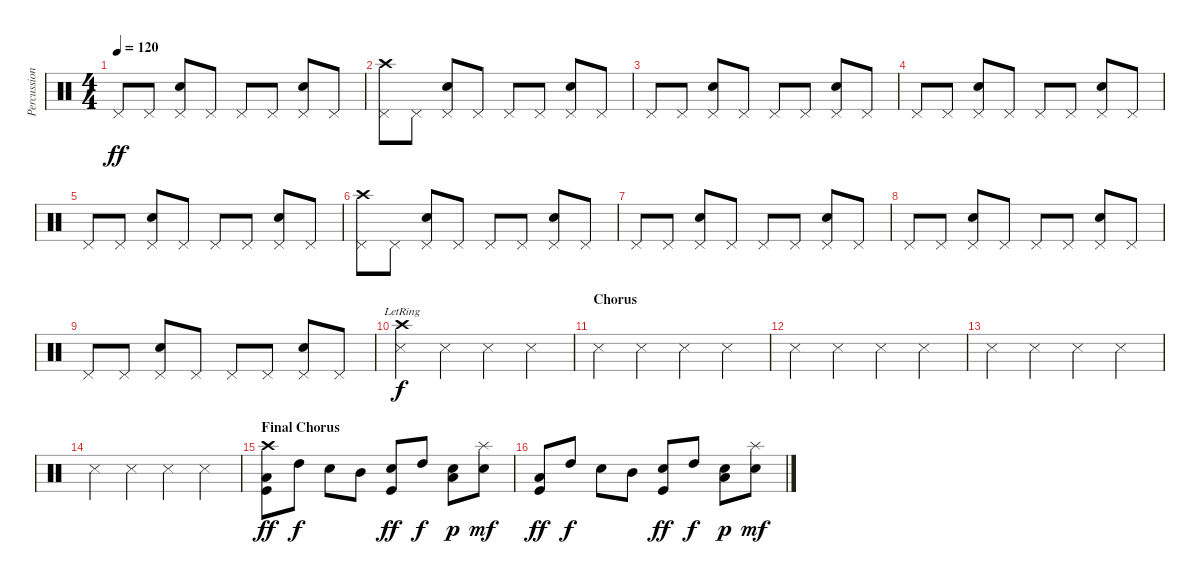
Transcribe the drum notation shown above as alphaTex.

\track ("Percussion" "Percussion") {instrument percussion}
\staff {score}
\articulation defaults
\ts (4 4)
\tempo 120
\clef neutral
\ks c "Pedal Hi-Hat (hit)".8{dy ff} "Pedal Hi-Hat (hit)".8
("Pedal Hi-Hat (hit)" "Electric Snare (hit)").8 "Pedal Hi-Hat (hit)".8 "Pedal Hi-Hat (hit)".8 "Pedal Hi-Hat (hit)".8 ("Pedal Hi-Hat (hit)" "Electric Snare (hit)").8 "Pedal Hi-Hat (hit)".8 |
("Pedal Hi-Hat (hit)" "Crash high (hit)").8 "Pedal Hi-Hat (hit)".8 ("Pedal Hi-Hat (hit)" "Electric Snare (hit)").8 "Pedal Hi-Hat (hit)".8 "Pedal Hi-Hat (hit)".8 "Pedal Hi-Hat (hit)".8 ("Pedal Hi-Hat (hit)" "Electric Snare (hit)").8 "Pedal Hi-Hat (hit)".8 |
"Pedal Hi-Hat (hit)".8 "Pedal Hi-Hat (hit)".8 ("Pedal Hi-Hat (hit)" "Electric Snare (hit)").8 "Pedal Hi-Hat (hit)".8 "Pedal Hi-Hat (hit)".8 "Pedal Hi-Hat (hit)".8 ("Pedal Hi-Hat (hit)" "Electric Snare (hit)").8 "Pedal Hi-Hat (hit)".8 |
"Pedal Hi-Hat (hit)".8 "Pedal Hi-Hat (hit)".8 ("Pedal Hi-Hat (hit)" "Electric Snare (hit)").8 "Pedal Hi-Hat (hit)".8 "Pedal Hi-Hat (hit)".8 "Pedal Hi-Hat (hit)".8 ("Pedal Hi-Hat (hit)" "Electric Snare (hit)").8 "Pedal Hi-Hat (hit)".8 |
"Pedal Hi-Hat (hit)".8 "Pedal Hi-Hat (hit)".8 ("Pedal Hi-Hat (hit)" "Electric Snare (hit)").8 "Pedal Hi-Hat (hit)".8 "Pedal Hi-Hat (hit)".8 "Pedal Hi-Hat (hit)".8 ("Pedal Hi-Hat (hit)" "Electric Snare (hit)").8 "Pedal Hi-Hat (hit)".8 |
("Pedal Hi-Hat (hit)" "Crash high (hit)").8 "Pedal Hi-Hat (hit)".8 ("Pedal Hi-Hat (hit)" "Electric Snare (hit)").8 "Pedal Hi-Hat (hit)".8 "Pedal Hi-Hat (hit)".8 "Pedal Hi-Hat (hit)".8 ("Pedal Hi-Hat (hit)" "Electric Snare (hit)").8 "Pedal Hi-Hat (hit)".8 |
"Pedal Hi-Hat (hit)".8 "Pedal Hi-Hat (hit)".8 ("Pedal Hi-Hat (hit)" "Electric Snare (hit)").8 "Pedal Hi-Hat (hit)".8 "Pedal Hi-Hat (hit)".8 "Pedal Hi-Hat (hit)".8 ("Pedal Hi-Hat (hit)" "Electric Snare (hit)").8 "Pedal Hi-Hat (hit)".8 |
"Pedal Hi-Hat (hit)".8 "Pedal Hi-Hat (hit)".8 ("Pedal Hi-Hat (hit)" "Electric Snare (hit)").8 "Pedal Hi-Hat (hit)".8 "Pedal Hi-Hat (hit)".8 "Pedal Hi-Hat (hit)".8 ("Pedal Hi-Hat (hit)" "Electric Snare (hit)").8 "Pedal Hi-Hat (hit)".8 |
"Pedal Hi-Hat (hit)".8 "Pedal Hi-Hat (hit)".8 ("Pedal Hi-Hat (hit)" "Electric Snare (hit)").8 "Pedal Hi-Hat (hit)".8 "Pedal Hi-Hat (hit)".8 "Pedal Hi-Hat (hit)".8 ("Pedal Hi-Hat (hit)" "Electric Snare (hit)").8 "Pedal Hi-Hat (hit)".8 |
("Crash high (hit)"{lr} "Snare (side stick) 3").4{dy f volume 10} "Snare (side stick) 3".4 "Snare (side stick) 3".4 "Snare (side stick) 3".4 |
\section ("" "Chorus")
"Snare (side stick) 3".4 "Snare (side stick) 3".4 "Snare (side stick) 3".4 "Snare (side stick) 3".4 |
"Snare (side stick) 3".4 "Snare (side stick) 3".4 "Snare (side stick) 3".4 "Snare (side stick) 3".4 |
"Snare (side stick) 3".4 "Snare (side stick) 3".4 "Snare (side stick) 3".4 "Snare (side stick) 3".4 |
"Snare (side stick) 3".4 "Snare (side stick) 3".4 "Snare (side stick) 3".4 "Snare (side stick) 3".4 |
\section ("" "Final Chorus")
("Kick (hit)" "Low Tom (hit)" "Crash high (hit)").8{dy ff volume 10} "High Tom (hit)".8{dy f} "Snare (hit) 2".8 "Mid Tom (hit)".8 ("Kick (hit)" "Snare (hit) 2").8{dy ff} "High Tom (hit)".8{dy f} ("Snare (hit) 2" "Low Tom (hit)").8{dy p} ("Splash (hit)" "Snare (hit) 2").8{dy mf} |
("Kick (hit)" "Low Tom (hit)").8{dy ff} "High Tom (hit)".8{dy f} "Snare (hit) 2".8 "Mid Tom (hit)".8 ("Kick (hit)" "Snare (hit) 2").8{dy ff} "High Tom (hit)".8{dy f} ("Snare (hit) 2" "Low Tom (hit)").8{dy p} ("Splash (hit)" "Snare (hit) 2").8{dy mf}
